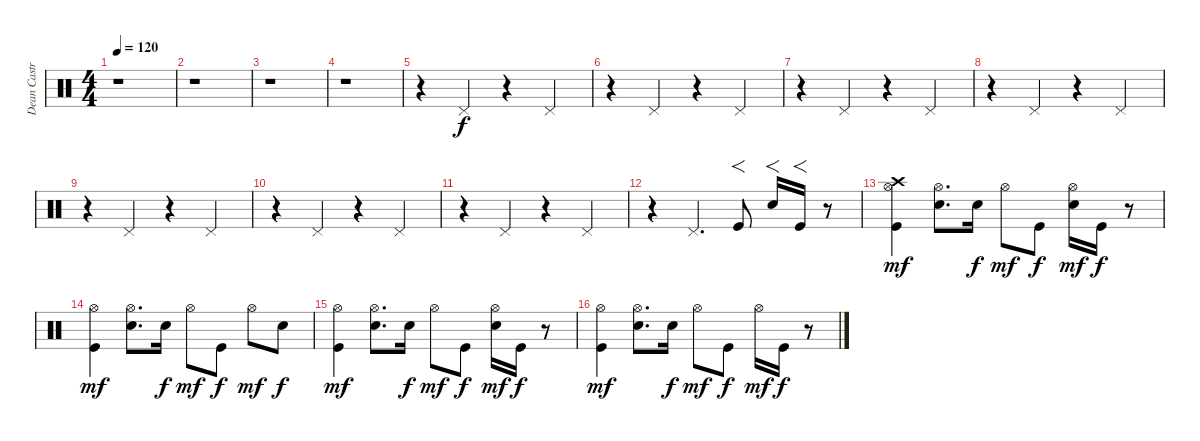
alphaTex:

\track ("Dean Castronova" "Dean Castr") {instrument percussion}
\staff {score}
\articulation defaults
\ts (4 4)
\tempo 120
\clef neutral
\ks c
r.1{dy f} |
r.1 |
r.1 |
r.1 |
r.4 "Pedal Hi-Hat (hit)".4 r.4 "Pedal Hi-Hat (hit)".4 |
r.4 "Pedal Hi-Hat (hit)".4 r.4 "Pedal Hi-Hat (hit)".4 |
r.4 "Pedal Hi-Hat (hit)".4 r.4 "Pedal Hi-Hat (hit)".4 |
r.4 "Pedal Hi-Hat (hit)".4 r.4 "Pedal Hi-Hat (hit)".4 |
r.4 "Pedal Hi-Hat (hit)".4 r.4 "Pedal Hi-Hat (hit)".4 |
r.4 "Pedal Hi-Hat (hit)".4 r.4 "Pedal Hi-Hat (hit)".4 |
r.4 "Pedal Hi-Hat (hit)".4 r.4 "Pedal Hi-Hat (hit)".4 |
r.4 "Pedal Hi-Hat (hit)".4{d} "Kick (hit)".8{f} "Electric Snare (hit)".16{f} "Kick (hit)".16{f} r.8 |
("Crash high (hit)" "Hi-Hat (open)" "Kick (hit)").4{dy mf} ("Hi-Hat (open)" "Electric Snare (hit)").8{d} "Electric Snare (hit)".16{dy f} "Hi-Hat (open)".8{dy mf} "Kick (hit)".8{dy f} ("Hi-Hat (open)" "Electric Snare (hit)").16{dy mf} "Kick (hit)".16{dy f} r.8 |
("Hi-Hat (open)" "Kick (hit)").4{dy mf} ("Hi-Hat (open)" "Electric Snare (hit)").8{d} "Electric Snare (hit)".16{dy f} "Hi-Hat (open)".8{dy mf} "Kick (hit)".8{dy f} "Hi-Hat (open)".8{dy mf} "Electric Snare (hit)".8{dy f} |
("Hi-Hat (open)" "Kick (hit)").4{dy mf} ("Hi-Hat (open)" "Electric Snare (hit)").8{d} "Electric Snare (hit)".16{dy f} "Hi-Hat (open)".8{dy mf} "Kick (hit)".8{dy f} ("Hi-Hat (open)" "Electric Snare (hit)").16{dy mf} "Kick (hit)".16{dy f} r.8 |
("Hi-Hat (open)" "Kick (hit)").4{dy mf} ("Hi-Hat (open)" "Electric Snare (hit)").8{d} "Electric Snare (hit)".16{dy f} "Hi-Hat (open)".8{dy mf} "Kick (hit)".8{dy f} "Hi-Hat (open)".16{dy mf} "Kick (hit)".16{dy f} r.8
